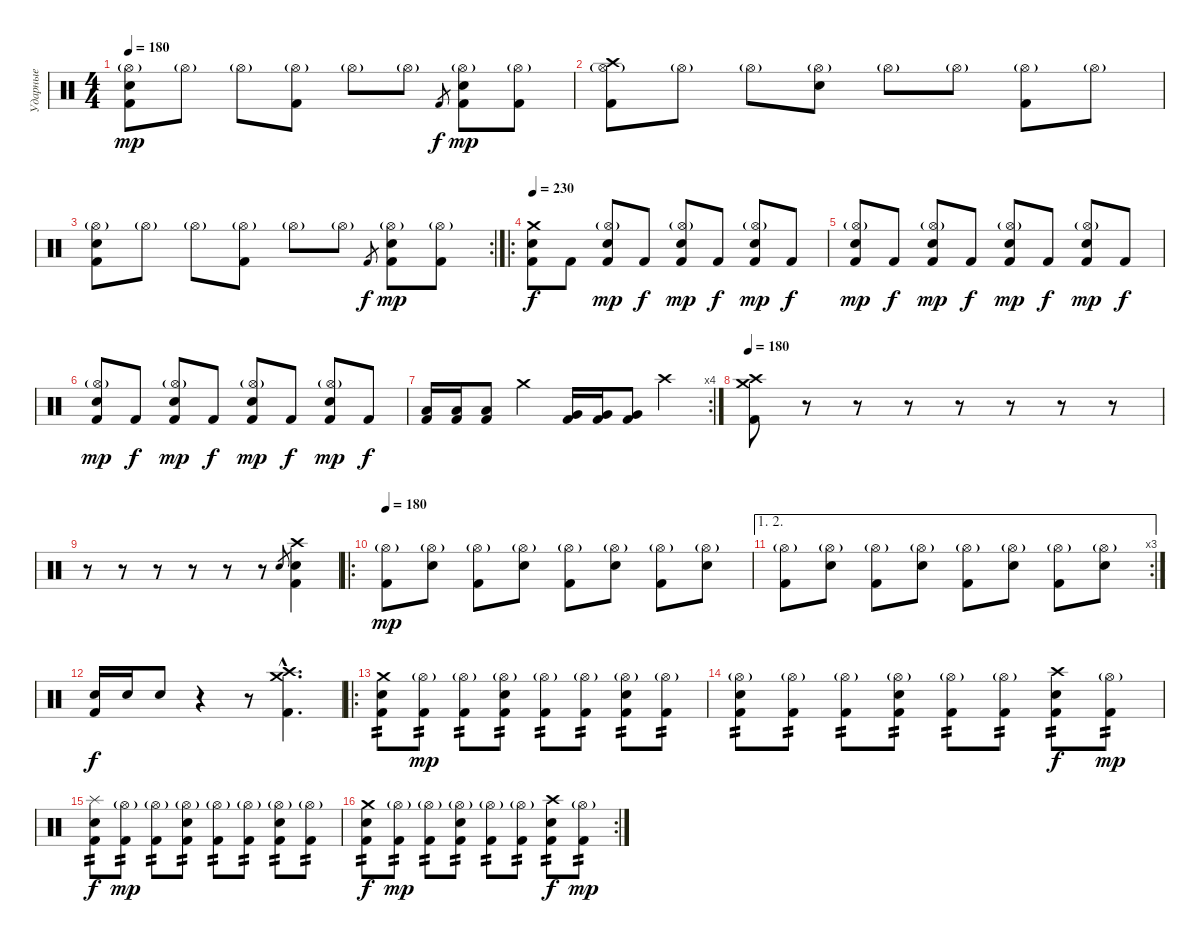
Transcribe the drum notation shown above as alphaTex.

\track ("Ударные" "Ударные") {instrument percussion}
\staff {score}
\articulation defaults
\ts (4 4)
\tempo 180
\clef neutral
\ks c
("Electric Snare (hit)" "Hi-Hat (open)"{g} "Kick (hit) 2").8{dy mp} "Hi-Hat (open)"{g}.8 "Hi-Hat (open)"{g}.8 ("Hi-Hat (open)"{g} "Kick (hit) 2").8 "Hi-Hat (open)"{g}.8 "Hi-Hat (open)"{g}.8 "Kick (hit) 2".8{gr dy f} ("Electric Snare (hit)" "Hi-Hat (open)"{g} "Kick (hit) 2").8{dy mp} ("Hi-Hat (open)"{g} "Kick (hit) 2").8 |
("Crash high (hit)" "Hi-Hat (open)"{g} "Kick (hit) 2").8 "Hi-Hat (open)"{g}.8 "Hi-Hat (open)"{g}.8 ("Electric Snare (hit)" "Hi-Hat (open)"{g}).8 "Hi-Hat (open)"{g}.8 "Hi-Hat (open)"{g}.8 ("Hi-Hat (open)"{g} "Kick (hit) 2").8 "Hi-Hat (open)"{g}.8 |
\rc 2
("Electric Snare (hit)" "Hi-Hat (open)"{g} "Kick (hit) 2").8 "Hi-Hat (open)"{g}.8 "Hi-Hat (open)"{g}.8 ("Hi-Hat (open)"{g} "Kick (hit) 2").8 "Hi-Hat (open)"{g}.8 "Hi-Hat (open)"{g}.8 "Kick (hit) 2".8{gr dy f} ("Electric Snare (hit)" "Hi-Hat (open)"{g} "Kick (hit) 2").8{dy mp} ("Hi-Hat (open)"{g} "Kick (hit) 2").8 |
\ro
\tempo 230
("Electric Snare (hit)" "Crash medium (hit)" "Kick (hit) 2").8{dy f} "Kick (hit) 2".8 ("Electric Snare (hit)" "Hi-Hat (open)"{g} "Kick (hit) 2").8{dy mp} "Kick (hit) 2".8{dy f} ("Electric Snare (hit)" "Hi-Hat (open)"{g} "Kick (hit) 2").8{dy mp} "Kick (hit) 2".8{dy f} ("Electric Snare (hit)" "Hi-Hat (open)"{g} "Kick (hit) 2").8{dy mp} "Kick (hit) 2".8{dy f} |
("Electric Snare (hit)" "Hi-Hat (open)"{g} "Kick (hit) 2").8{dy mp} "Kick (hit) 2".8{dy f} ("Electric Snare (hit)" "Hi-Hat (open)"{g} "Kick (hit) 2").8{dy mp} "Kick (hit) 2".8{dy f} ("Electric Snare (hit)" "Hi-Hat (open)"{g} "Kick (hit) 2").8{dy mp} "Kick (hit) 2".8{dy f} ("Electric Snare (hit)" "Hi-Hat (open)"{g} "Kick (hit) 2").8{dy mp} "Kick (hit) 2".8{dy f} |
("Electric Snare (hit)" "Hi-Hat (open)"{g} "Kick (hit) 2").8{dy mp} "Kick (hit) 2".8{dy f} ("Electric Snare (hit)" "Hi-Hat (open)"{g} "Kick (hit) 2").8{dy mp} "Kick (hit) 2".8{dy f} ("Electric Snare (hit)" "Hi-Hat (open)"{g} "Kick (hit) 2").8{dy mp} "Kick (hit) 2".8{dy f} ("Electric Snare (hit)" "Hi-Hat (open)"{g} "Kick (hit) 2").8{dy mp} "Kick (hit) 2".8{dy f} |
\rc 4
("Low Tom (hit)" "Kick (hit) 2").16 ("Low Tom (hit)" "Kick (hit) 2").16 ("Low Tom (hit)" "Kick (hit) 2").8 "Crash medium (hit)".4 ("Very Low Tom (hit)" "Kick (hit) 2").16 ("Very Low Tom (hit)" "Kick (hit) 2").16 ("Very Low Tom (hit)" "Kick (hit) 2").8 "Crash high (hit)".4 |
\tempo 180
("Crash medium (hit)" "Crash high (hit)" "Kick (hit) 2").8 r.8 r.8 r.8 r.8 r.8 r.8 r.8 |
r.8 r.8 r.8 r.8 r.8 r.8 "Electric Snare (hit)".8{gr} ("Electric Snare (hit)" "Crash high (hit)" "Kick (hit) 2").4 |
\ro
\tempo 180
("Hi-Hat (open)"{g} "Kick (hit) 2").8{dy mp} ("Electric Snare (hit)" "Hi-Hat (open)"{g}).8 ("Hi-Hat (open)"{g} "Kick (hit) 2").8 ("Electric Snare (hit)" "Hi-Hat (open)"{g}).8 ("Hi-Hat (open)"{g} "Kick (hit) 2").8 ("Electric Snare (hit)" "Hi-Hat (open)"{g}).8 ("Hi-Hat (open)"{g} "Kick (hit) 2").8 ("Electric Snare (hit)" "Hi-Hat (open)"{g}).8 |
\ae (1 2)
\rc 3
("Hi-Hat (open)"{g} "Kick (hit) 2").8 ("Electric Snare (hit)" "Hi-Hat (open)"{g}).8 ("Hi-Hat (open)"{g} "Kick (hit) 2").8 ("Electric Snare (hit)" "Hi-Hat (open)"{g}).8 ("Hi-Hat (open)"{g} "Kick (hit) 2").8 ("Electric Snare (hit)" "Hi-Hat (open)"{g}).8 ("Hi-Hat (open)"{g} "Kick (hit) 2").8 ("Electric Snare (hit)" "Hi-Hat (open)"{g}).8 |
("Electric Snare (hit)" "Kick (hit) 2").16{dy f} "Electric Snare (hit)".16 "Electric Snare (hit)".8 r.4 r.8 ("Crash high (hit)"{hac} "Crash medium (hit)"{hac} "Kick (hit) 2"{hac}).4{d} |
\ro
("Electric Snare (hit)" "Crash medium (hit)" "Kick (hit) 2").8{tp 2} ("Hi-Hat (open)"{g} "Kick (hit) 2").8{tp 2 dy mp} ("Hi-Hat (open)"{g} "Kick (hit) 2").8{tp 2} ("Electric Snare (hit)" "Hi-Hat (open)"{g} "Kick (hit) 2").8{tp 2} ("Hi-Hat (open)"{g} "Kick (hit) 2").8{tp 2} ("Hi-Hat (open)"{g} "Kick (hit) 2").8{tp 2} ("Electric Snare (hit)" "Hi-Hat (open)"{g} "Kick (hit) 2").8{tp 2} ("Hi-Hat (open)"{g} "Kick (hit) 2").8{tp 2} |
("Electric Snare (hit)" "Hi-Hat (open)"{g} "Kick (hit) 2").8{tp 2} ("Hi-Hat (open)"{g} "Kick (hit) 2").8{tp 2} ("Hi-Hat (open)"{g} "Kick (hit) 2").8{tp 2} ("Electric Snare (hit)" "Hi-Hat (open)"{g} "Kick (hit) 2").8{tp 2} ("Hi-Hat (open)"{g} "Kick (hit) 2").8{tp 2} ("Hi-Hat (open)"{g} "Kick (hit) 2").8{tp 2} ("Electric Snare (hit)" "Crash high (hit)" "Kick (hit) 2").8{tp 2 dy f} ("Hi-Hat (open)"{g} "Kick (hit) 2").8{tp 2 dy mp} |
("Electric Snare (hit)" "Splash (hit)" "Kick (hit) 2").8{tp 2 dy f} ("Hi-Hat (open)"{g} "Kick (hit) 2").8{tp 2 dy mp} ("Hi-Hat (open)"{g} "Kick (hit) 2").8{tp 2} ("Electric Snare (hit)" "Hi-Hat (open)"{g} "Kick (hit) 2").8{tp 2} ("Hi-Hat (open)"{g} "Kick (hit) 2").8{tp 2} ("Hi-Hat (open)"{g} "Kick (hit) 2").8{tp 2} ("Electric Snare (hit)" "Hi-Hat (open)"{g} "Kick (hit) 2").8{tp 2} ("Hi-Hat (open)"{g} "Kick (hit) 2").8{tp 2} |
\rc 2
("Electric Snare (hit)" "Crash medium (hit)" "Kick (hit) 2").8{tp 2 dy f} ("Hi-Hat (open)"{g} "Kick (hit) 2").8{tp 2 dy mp} ("Hi-Hat (open)"{g} "Kick (hit) 2").8{tp 2} ("Electric Snare (hit)" "Hi-Hat (open)"{g} "Kick (hit) 2").8{tp 2} ("Hi-Hat (open)"{g} "Kick (hit) 2").8{tp 2} ("Hi-Hat (open)"{g} "Kick (hit) 2").8{tp 2} ("Electric Snare (hit)" "Crash high (hit)" "Kick (hit) 2").8{tp 2 dy f} ("Hi-Hat (open)"{g} "Kick (hit) 2").8{tp 2 dy mp}
